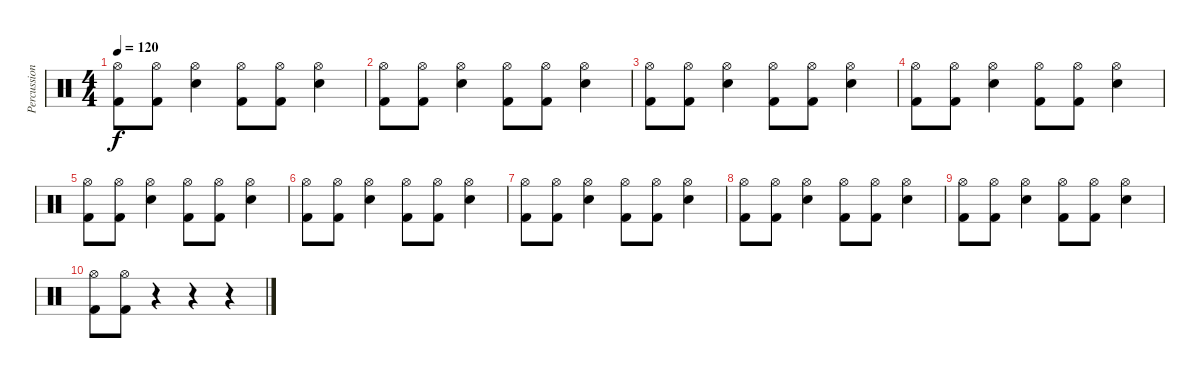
\track ("Percussion" "Percussion") {instrument percussion}
\staff {score}
\articulation defaults
\ts (4 4)
\tempo 120
\clef neutral
\ks c
("Hi-Hat (open)" "Kick (hit) 2").8{dy f} ("Hi-Hat (open)" "Kick (hit) 2").8 ("Hi-Hat (open)" "Electric Snare (hit)").4 ("Hi-Hat (open)" "Kick (hit) 2").8 ("Hi-Hat (open)" "Kick (hit) 2").8 ("Hi-Hat (open)" "Electric Snare (hit)").4 |
("Hi-Hat (open)" "Kick (hit) 2").8 ("Hi-Hat (open)" "Kick (hit) 2").8 ("Hi-Hat (open)" "Electric Snare (hit)").4 ("Hi-Hat (open)" "Kick (hit) 2").8 ("Hi-Hat (open)" "Kick (hit) 2").8 ("Hi-Hat (open)" "Electric Snare (hit)").4 |
("Hi-Hat (open)" "Kick (hit) 2").8 ("Hi-Hat (open)" "Kick (hit) 2").8 ("Hi-Hat (open)" "Electric Snare (hit)").4 ("Hi-Hat (open)" "Kick (hit) 2").8 ("Hi-Hat (open)" "Kick (hit) 2").8 ("Hi-Hat (open)" "Electric Snare (hit)").4 |
("Hi-Hat (open)" "Kick (hit) 2").8 ("Hi-Hat (open)" "Kick (hit) 2").8 ("Hi-Hat (open)" "Electric Snare (hit)").4 ("Hi-Hat (open)" "Kick (hit) 2").8 ("Hi-Hat (open)" "Kick (hit) 2").8 ("Hi-Hat (open)" "Electric Snare (hit)").4 |
("Hi-Hat (open)" "Kick (hit) 2").8 ("Hi-Hat (open)" "Kick (hit) 2").8 ("Hi-Hat (open)" "Electric Snare (hit)").4 ("Hi-Hat (open)" "Kick (hit) 2").8 ("Hi-Hat (open)" "Kick (hit) 2").8 ("Hi-Hat (open)" "Electric Snare (hit)").4 |
("Hi-Hat (open)" "Kick (hit) 2").8 ("Hi-Hat (open)" "Kick (hit) 2").8 ("Hi-Hat (open)" "Electric Snare (hit)").4 ("Hi-Hat (open)" "Kick (hit) 2").8 ("Hi-Hat (open)" "Kick (hit) 2").8 ("Hi-Hat (open)" "Electric Snare (hit)").4 |
("Hi-Hat (open)" "Kick (hit) 2").8 ("Hi-Hat (open)" "Kick (hit) 2").8 ("Hi-Hat (open)" "Electric Snare (hit)").4 ("Hi-Hat (open)" "Kick (hit) 2").8 ("Hi-Hat (open)" "Kick (hit) 2").8 ("Hi-Hat (open)" "Electric Snare (hit)").4 |
("Hi-Hat (open)" "Kick (hit) 2").8 ("Hi-Hat (open)" "Kick (hit) 2").8 ("Hi-Hat (open)" "Electric Snare (hit)").4 ("Hi-Hat (open)" "Kick (hit) 2").8 ("Hi-Hat (open)" "Kick (hit) 2").8 ("Hi-Hat (open)" "Electric Snare (hit)").4 |
("Hi-Hat (open)" "Kick (hit) 2").8 ("Hi-Hat (open)" "Kick (hit) 2").8 ("Hi-Hat (open)" "Electric Snare (hit)").4 ("Hi-Hat (open)" "Kick (hit) 2").8 ("Hi-Hat (open)" "Kick (hit) 2").8 ("Hi-Hat (open)" "Electric Snare (hit)").4 |
("Hi-Hat (open)" "Kick (hit) 2").8 ("Hi-Hat (open)" "Kick (hit) 2").8 r.4 r.4 r.4
